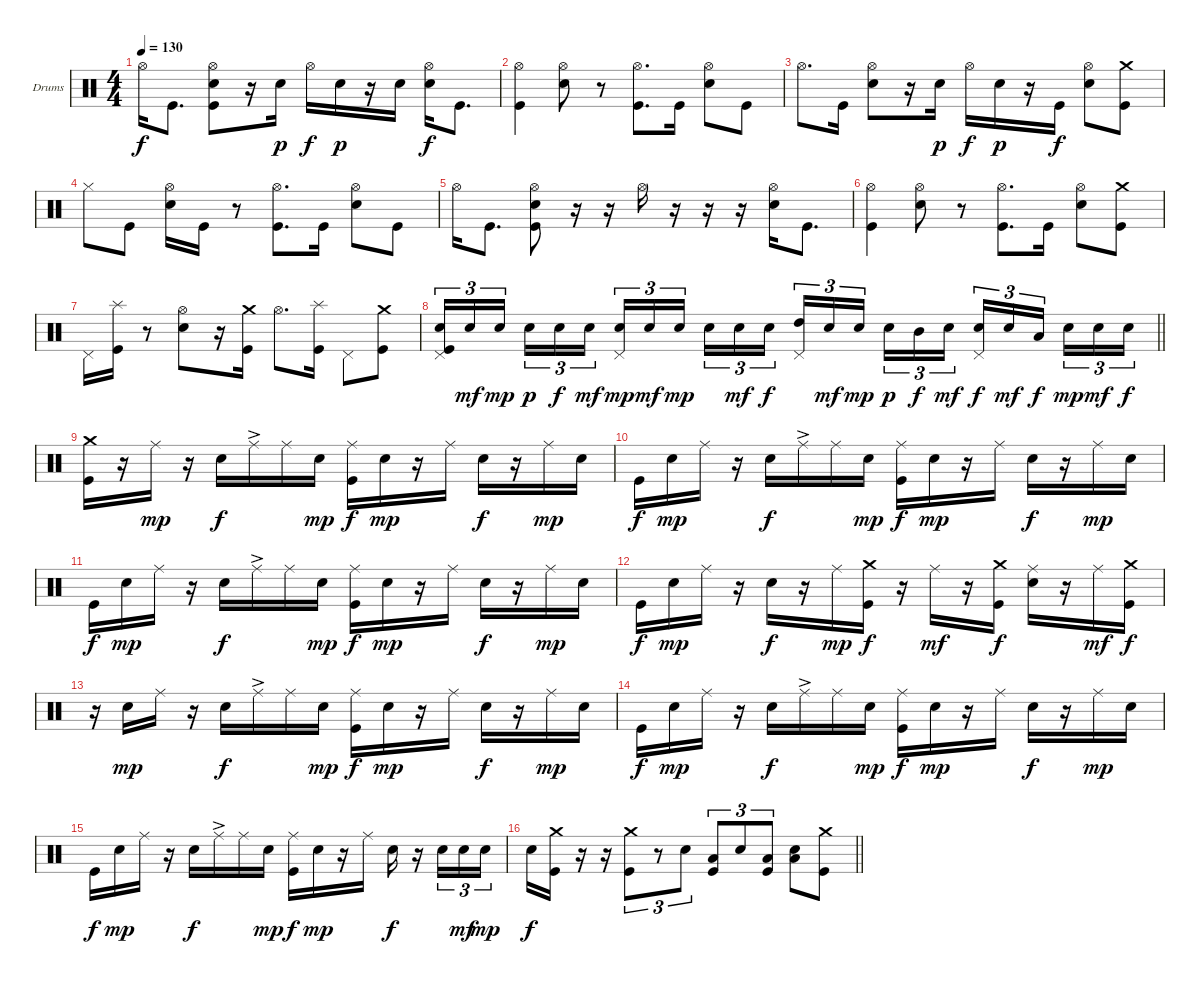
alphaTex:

\defaultSystemsLayout 4
\bracketExtendMode groupsimilarinstruments
\firstSystemTrackNameOrientation horizontal
\otherSystemsTrackNameOrientation horizontal
\track ("Drumkit" "Drums") {instrument percussion}
\staff {score}
\articulation defaults
\ts (4 4)
\tempo 130
\clef neutral
\ks c "Hi-Hat (open)".16{dy f} "Kick (hit)".8{d}
("Hi-Hat (open)" "Snare (hit) 2" "Kick (hit)").8 r.16 "Snare (hit) 2".16{dy p} "Hi-Hat (open)".16{dy f} "Snare (hit) 2".16{dy p} r.16 "Snare (hit) 2".16 ("Hi-Hat (open)" "Snare (hit) 2").16{dy f} "Kick (hit)".8{d} |
("Kick (hit)" "Hi-Hat (open)").4 ("Hi-Hat (open)" "Snare (hit) 2").8 r.8 ("Hi-Hat (open)" "Kick (hit)").8{d} "Kick (hit)".16 ("Hi-Hat (open)" "Snare (hit) 2").8 "Kick (hit)".8 |
"Hi-Hat (open)".8{d} "Kick (hit)".16 ("Hi-Hat (open)" "Snare (hit) 2").8 r.16 "Snare (hit) 2".16{dy p} "Hi-Hat (open)".16{dy f} "Snare (hit) 2".16{dy p} r.16 "Kick (hit)".16{dy f} ("Hi-Hat (open)" "Snare (hit) 2").8 ("Kick (hit)" "Crash medium (hit)").8 |
"Hi-Hat (closed)".8 "Kick (hit)".8 ("Hi-Hat (open)" "Snare (hit) 2").16 "Kick (hit)".16 r.8 ("Hi-Hat (open)" "Kick (hit)").8{d} "Kick (hit)".16 ("Hi-Hat (open)" "Snare (hit) 2").8 "Kick (hit)".8 |
"Hi-Hat (open)".16 "Kick (hit)".8{d} ("Hi-Hat (open)" "Snare (hit) 2" "Kick (hit)").8 r.16 r.16 "Hi-Hat (open)".16 r.16 r.16 r.16 ("Hi-Hat (open)" "Snare (hit) 2").16 "Kick (hit)".8{d} |
("Kick (hit)" "Hi-Hat (open)").4 ("Hi-Hat (open)" "Snare (hit) 2").8 r.8 ("Hi-Hat (open)" "Kick (hit)").8{d} "Kick (hit)".16 ("Hi-Hat (open)" "Snare (hit) 2").8 ("Kick (hit)" "Crash medium (hit)").8 |
"Pedal Hi-Hat (hit)".16 ("Kick (hit)" "Splash (hit)").16 r.8 ("Hi-Hat (open)" "Snare (hit) 2").8 r.16 ("Kick (hit)" "Crash medium (hit)").16 "Hi-Hat (open)".8{d} ("Kick (hit)" "Splash (hit)").16 "Pedal Hi-Hat (hit)".8 ("Kick (hit)" "Crash medium (hit)").8 |
\barLineRight lightlight
("Snare (hit) 2" "Kick (hit)" "Pedal Hi-Hat (hit)").16{tu (3 2)} "Snare (hit) 2".16{tu (3 2) dy mf} "Snare (hit) 2".16{tu (3 2) dy mp} "Snare (hit) 2".16{tu (3 2) dy p} "Snare (hit) 2".16{tu (3 2) dy f} "Snare (hit) 2".16{tu (3 2) dy mf} ("Snare (hit) 2" "Pedal Hi-Hat (hit)").16{tu (3 2) dy mp} "Snare (hit) 2".16{tu (3 2) dy mf} "Snare (hit) 2".16{tu (3 2) dy mp} "Snare (hit) 2".16{tu (3 2)} "Snare (hit) 2".16{tu (3 2) dy mf} "Snare (hit) 2".16{tu (3 2) dy f} ("Pedal Hi-Hat (hit)" "High Tom (hit)").16{tu (3 2)} "Snare (hit) 2".16{tu (3 2) dy mf} "Snare (hit) 2".16{tu (3 2) dy mp} "Snare (hit) 2".16{tu (3 2) dy p} "Mid Tom (hit)".16{tu (3 2) dy f} "Snare (hit) 2".16{tu (3 2) dy mf} ("Snare (hit) 2" "Pedal Hi-Hat (hit)").16{tu (3 2) dy f} "Snare (hit) 2".16{tu (3 2) dy mf} "Low Tom (hit)".16{tu (3 2) dy f} "Snare (hit) 2".16{tu (3 2) dy mp} "Snare (hit) 2".16{tu (3 2) dy mf} "Snare (hit) 2".16{tu (3 2) dy f} |
("Kick (hit)" "Crash medium (hit)").16 r.16 "Ride (middle)".16{dy mp} r.16 "Snare (hit) 2".16{dy f} "Ride (middle)"{ac}.16 "Ride (middle)".16 "Snare (hit) 2".16{dy mp} ("Kick (hit)" "Ride (middle)").16{dy f} "Snare (hit) 2".16{dy mp} r.16 "Ride (middle)".16 "Snare (hit) 2".16{dy f} r.16 "Ride (middle)".16{dy mp} "Snare (hit) 2".16 |
"Kick (hit)".16{dy f} "Snare (hit) 2".16{dy mp} "Ride (middle)".16 r.16 "Snare (hit) 2".16{dy f} "Ride (middle)"{ac}.16 "Ride (middle)".16 "Snare (hit) 2".16{dy mp} ("Kick (hit)" "Ride (middle)").16{dy f} "Snare (hit) 2".16{dy mp} r.16 "Ride (middle)".16 "Snare (hit) 2".16{dy f} r.16 "Ride (middle)".16{dy mp} "Snare (hit) 2".16 |
"Kick (hit)".16{dy f} "Snare (hit) 2".16{dy mp} "Ride (middle)".16 r.16 "Snare (hit) 2".16{dy f} "Ride (middle)"{ac}.16 "Ride (middle)".16 "Snare (hit) 2".16{dy mp} ("Kick (hit)" "Ride (middle)").16{dy f} "Snare (hit) 2".16{dy mp} r.16 "Ride (middle)".16 "Snare (hit) 2".16{dy f} r.16 "Ride (middle)".16{dy mp} "Snare (hit) 2".16 |
"Kick (hit)".16{dy f} "Snare (hit) 2".16{dy mp} "Ride (middle)".16 r.16 "Snare (hit) 2".16{dy f} r.16 "Ride (middle)".16{dy mp} ("Kick (hit)" "Crash medium (hit)").16{dy f} r.16 "Ride (middle)".16{dy mf} r.16 ("Kick (hit)" "Crash medium (hit)").16{dy f} ("Snare (hit) 2" "Ride (middle)").16 r.16 "Ride (middle)".16{dy mf} ("Kick (hit)" "Crash medium (hit)").16{dy f} |
r.16 "Snare (hit) 2".16{dy mp} "Ride (middle)".16 r.16 "Snare (hit) 2".16{dy f} "Ride (middle)"{ac}.16 "Ride (middle)".16 "Snare (hit) 2".16{dy mp} ("Kick (hit)" "Ride (middle)").16{dy f} "Snare (hit) 2".16{dy mp} r.16 "Ride (middle)".16 "Snare (hit) 2".16{dy f} r.16 "Ride (middle)".16{dy mp} "Snare (hit) 2".16 |
"Kick (hit)".16{dy f} "Snare (hit) 2".16{dy mp} "Ride (middle)".16 r.16 "Snare (hit) 2".16{dy f} "Ride (middle)"{ac}.16 "Ride (middle)".16 "Snare (hit) 2".16{dy mp} ("Kick (hit)" "Ride (middle)").16{dy f} "Snare (hit) 2".16{dy mp} r.16 "Ride (middle)".16 "Snare (hit) 2".16{dy f} r.16 "Ride (middle)".16{dy mp} "Snare (hit) 2".16 |
"Kick (hit)".16{dy f} "Snare (hit) 2".16{dy mp} "Ride (middle)".16 r.16 "Snare (hit) 2".16{dy f} "Ride (middle)"{ac}.16 "Ride (middle)".16 "Snare (hit) 2".16{dy mp} ("Kick (hit)" "Ride (middle)").16{dy f} "Snare (hit) 2".16{dy mp} r.16 "Ride (middle)".16 "Snare (hit) 2".16{dy f} r.16 "Snare (hit) 2".16{tu (3 2)} "Snare (hit) 2".16{tu (3 2) dy mf} "Snare (hit) 2".16{tu (3 2) dy mp} |
\barLineRight lightlight "Snare (hit) 2".16{dy f}
("Kick (hit)" "Crash medium (hit)").16 r.16 r.16 ("Kick (hit)" "Crash medium (hit)").8{tu (3 2)} r.8{tu (3 2)} "Snare (hit) 2".8{tu (3 2)} ("Kick (hit)" "Low Tom (hit)").8{tu (3 2)} "Snare (hit) 2".8{tu (3 2)} ("Kick (hit)" "Low Tom (hit)").8{tu (3 2)} ("Snare (hit) 2" "Low Tom (hit)").8 ("Kick (hit)" "Crash medium (hit)").8
